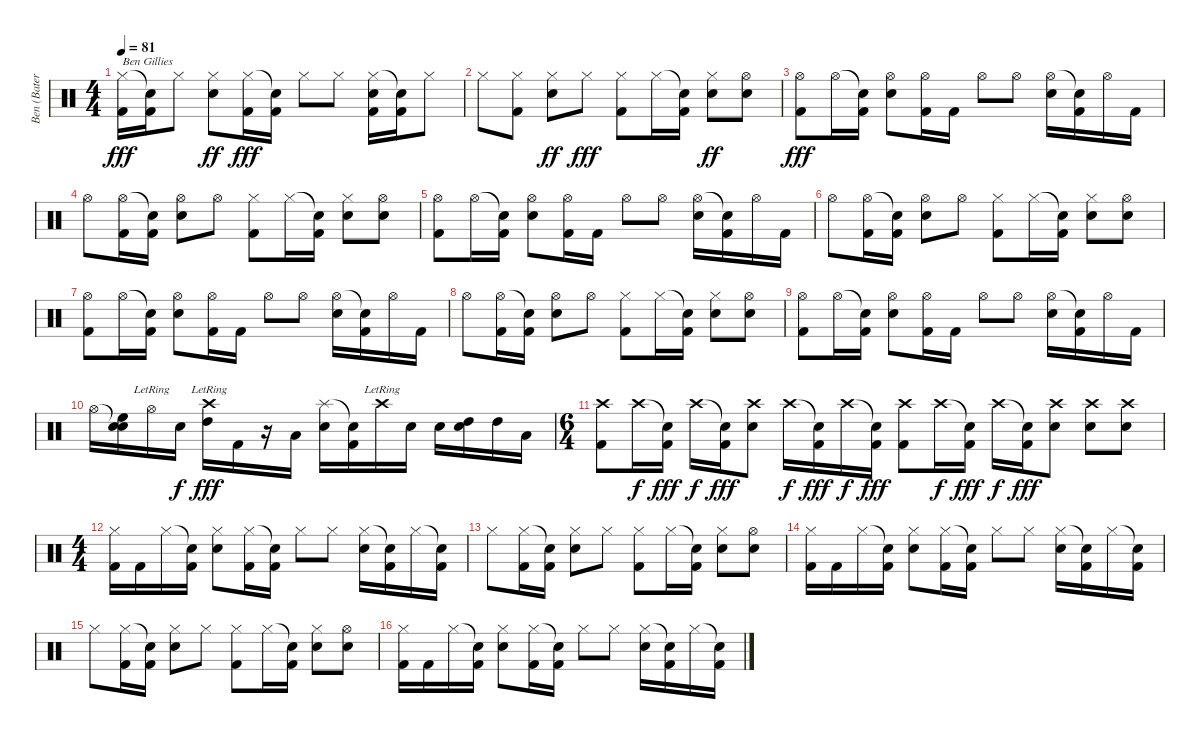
\track ("Ben (Bateria)" "Ben (Bater") {instrument percussion}
\staff {score}
\articulation defaults
\ts (4 4)
\tempo 81
\clef neutral
\ks c
("Hi-Hat (closed)" "Kick (hit) 2").16{txt "Ben Gillies" dy fff} ("Snare (hit)"{t} "Kick (hit) 2").16 "Hi-Hat (closed)".8 ("Hi-Hat (closed)" "Snare (hit) 2").8{dy ff} ("Hi-Hat (closed)" "Kick (hit) 2").16{dy fff} ("Snare (hit)"{t} "Kick (hit) 2").16 "Hi-Hat (closed)".8 "Hi-Hat (closed)".8 ("Hi-Hat (closed)" "Snare (hit) 2" "Kick (hit) 2").16 ("Snare (hit)"{t} "Kick (hit) 2").16 "Hi-Hat (closed)".8 |
"Hi-Hat (closed)".8 ("Hi-Hat (closed)" "Kick (hit) 2").8 ("Hi-Hat (closed)" "Snare (hit) 2").8{dy ff} "Hi-Hat (closed)".8{dy fff} ("Hi-Hat (closed)" "Kick (hit) 2").8 "Hi-Hat (closed)".16 ("Snare (hit)"{t} "Kick (hit) 2").16 ("Hi-Hat (closed)" "Snare (hit) 2").8{dy ff} ("Hi-Hat (open)" "Snare (hit) 2").8 |
("Hi-Hat (open)" "Kick (hit) 2").8{dy fff} "Hi-Hat (open)".16 ("Snare (hit)"{t} "Kick (hit) 2").16 ("Hi-Hat (open)" "Snare (hit) 2").8 ("Hi-Hat (open)" "Kick (hit) 2").16 "Kick (hit) 2".16 "Hi-Hat (open)".8 "Hi-Hat (open)".8 ("Hi-Hat (open)" "Snare (hit) 2").16 ("Snare (hit)"{t} "Kick (hit) 2").16 "Hi-Hat (open)".16 "Kick (hit) 2".16 |
"Hi-Hat (open)".8 ("Hi-Hat (open)" "Kick (hit) 2").16 ("Snare (hit)"{t} "Kick (hit) 2").16 ("Hi-Hat (open)" "Snare (hit) 2").8 "Hi-Hat (open)".8 ("Hi-Hat (closed)" "Kick (hit) 2").8 "Hi-Hat (closed)".16 ("Snare (hit)"{t} "Kick (hit) 2").16 ("Hi-Hat (closed)" "Snare (hit) 2").8 ("Hi-Hat (open)" "Snare (hit) 2").8 |
("Hi-Hat (open)" "Kick (hit) 2").8 "Hi-Hat (open)".16 ("Snare (hit)"{t} "Kick (hit) 2").16 ("Hi-Hat (open)" "Snare (hit) 2").8 ("Hi-Hat (open)" "Kick (hit) 2").16 "Kick (hit) 2".16 "Hi-Hat (open)".8 "Hi-Hat (open)".8 ("Hi-Hat (open)" "Snare (hit) 2").16 ("Snare (hit)"{t} "Kick (hit) 2").16 "Hi-Hat (open)".16 "Kick (hit) 2".16 |
"Hi-Hat (open)".8 ("Hi-Hat (open)" "Kick (hit) 2").16 ("Snare (hit)"{t} "Kick (hit) 2").16 ("Hi-Hat (open)" "Snare (hit) 2").8 "Hi-Hat (open)".8 ("Hi-Hat (closed)" "Kick (hit) 2").8 "Hi-Hat (closed)".16 ("Snare (hit)"{t} "Kick (hit) 2").16 ("Hi-Hat (closed)" "Snare (hit) 2").8 ("Hi-Hat (open)" "Snare (hit) 2").8 |
("Hi-Hat (open)" "Kick (hit) 2").8 "Hi-Hat (open)".16 ("Snare (hit)"{t} "Kick (hit) 2").16 ("Hi-Hat (open)" "Snare (hit) 2").8 ("Hi-Hat (open)" "Kick (hit) 2").16 "Kick (hit) 2".16 "Hi-Hat (open)".8 "Hi-Hat (open)".8 ("Hi-Hat (open)" "Snare (hit) 2").16 ("Snare (hit)"{t} "Kick (hit) 2").16 "Hi-Hat (open)".16 "Kick (hit) 2".16 |
"Hi-Hat (open)".8 ("Hi-Hat (open)" "Kick (hit) 2").16 ("Snare (hit)"{t} "Kick (hit) 2").16 ("Hi-Hat (open)" "Snare (hit) 2").8 "Hi-Hat (open)".8 ("Hi-Hat (closed)" "Kick (hit) 2").8 "Hi-Hat (closed)".16 ("Snare (hit)"{t} "Kick (hit) 2").16 ("Hi-Hat (closed)" "Snare (hit) 2").8 ("Hi-Hat (open)" "Snare (hit) 2").8 |
("Hi-Hat (open)" "Kick (hit) 2").8 "Hi-Hat (open)".16 ("Snare (hit)"{t} "Kick (hit) 2").16 ("Hi-Hat (open)" "Snare (hit) 2").8 ("Hi-Hat (open)" "Kick (hit) 2").16 "Kick (hit) 2".16 "Hi-Hat (open)".8 "Hi-Hat (open)".8 ("Hi-Hat (open)" "Snare (hit) 2").16 ("Snare (hit)"{t} "Kick (hit) 2").16 "Hi-Hat (open)".16 "Kick (hit) 2".16 |
"Hi-Hat (open)".16 ("Snare (hit)"{t} "Snare (hit) 2" "High Floor Tom (hit)").16 "Hi-Hat (open)"{lr}.16 "Snare (hit) 2".16{dy f} ("Crash high (hit)"{lr} "High Tom (hit)").16{dy fff} "Kick (hit) 2".16 r.16 "Low Tom (hit)".16 ("Splash (hit)" "Snare (hit) 2").16 ("Snare (hit)"{t} "Kick (hit) 2").16 "Crash high (hit)"{lr}.16 "Snare (hit) 2".16 "Snare (hit) 2".16 ("Snare (hit) 2" "High Tom (hit)").16 "High Tom (hit)".16 "Low Tom (hit)".16 |
\ts (6 4)
("Crash high (hit)" "Kick (hit) 2").8 "Crash high (hit)".16{dy f} ("Snare (hit)"{t} "Kick (hit) 2").16{dy fff} "Crash high (hit)".16{dy f} ("Snare (hit)"{t} "Kick (hit) 2").16{dy fff} ("Crash high (hit)" "Snare (hit) 2").8 "Crash high (hit)".16{dy f} ("Snare (hit)"{t} "Kick (hit) 2").16{dy fff} "Crash high (hit)".16{dy f} ("Snare (hit)"{t} "Kick (hit) 2").16{dy fff} ("Crash high (hit)" "Kick (hit) 2").8 "Crash high (hit)".16{dy f} ("Snare (hit)"{t} "Kick (hit) 2").16{dy fff} "Crash high (hit)".16{dy f} ("Snare (hit)"{t} "Kick (hit) 2").16{dy fff} ("Crash high (hit)" "Snare (hit) 2").8 ("Crash high (hit)" "Snare (hit) 2").8 ("Crash high (hit)" "Snare (hit) 2").8 |
\ts (4 4)
("Hi-Hat (closed)" "Kick (hit) 2").16 "Kick (hit) 2".16 "Hi-Hat (closed)".16 ("Snare (hit)"{t} "Kick (hit) 2").16 ("Hi-Hat (closed)" "Snare (hit) 2").8 ("Hi-Hat (closed)" "Kick (hit) 2").16 ("Snare (hit)"{t} "Kick (hit) 2").16 "Hi-Hat (closed)".8 "Hi-Hat (closed)".8 ("Hi-Hat (closed)" "Snare (hit) 2").16 ("Snare (hit)"{t} "Kick (hit) 2").16 "Hi-Hat (closed)".16 ("Snare (hit)"{t} "Kick (hit) 2").16 |
"Hi-Hat (closed)".8 ("Hi-Hat (closed)" "Kick (hit) 2").16 ("Snare (hit)"{t} "Kick (hit) 2").16 ("Hi-Hat (closed)" "Snare (hit) 2").8 "Hi-Hat (closed)".8 ("Hi-Hat (closed)" "Kick (hit) 2").8 "Hi-Hat (closed)".16 ("Snare (hit)"{t} "Kick (hit) 2").16 ("Hi-Hat (closed)" "Snare (hit) 2").8 ("Hi-Hat (open)" "Snare (hit) 2").8 |
("Hi-Hat (closed)" "Kick (hit) 2").16 "Kick (hit) 2".16 "Hi-Hat (closed)".16 ("Snare (hit)"{t} "Kick (hit) 2").16 ("Hi-Hat (closed)" "Snare (hit) 2").8 ("Hi-Hat (closed)" "Kick (hit) 2").16 ("Snare (hit)"{t} "Kick (hit) 2").16 "Hi-Hat (closed)".8 "Hi-Hat (closed)".8 ("Hi-Hat (closed)" "Snare (hit) 2").16 ("Snare (hit)"{t} "Kick (hit) 2").16 "Hi-Hat (closed)".16 ("Snare (hit)"{t} "Kick (hit) 2").16 |
"Hi-Hat (closed)".8 ("Hi-Hat (closed)" "Kick (hit) 2").16 ("Snare (hit)"{t} "Kick (hit) 2").16 ("Hi-Hat (closed)" "Snare (hit) 2").8 "Hi-Hat (closed)".8 ("Hi-Hat (closed)" "Kick (hit) 2").8 "Hi-Hat (closed)".16 ("Snare (hit)"{t} "Kick (hit) 2").16 ("Hi-Hat (closed)" "Snare (hit) 2").8 ("Hi-Hat (open)" "Snare (hit) 2").8 |
("Hi-Hat (closed)" "Kick (hit) 2").16 "Kick (hit) 2".16 "Hi-Hat (closed)".16 ("Snare (hit)"{t} "Kick (hit) 2").16 ("Hi-Hat (closed)" "Snare (hit) 2").8 ("Hi-Hat (closed)" "Kick (hit) 2").16 ("Snare (hit)"{t} "Kick (hit) 2").16 "Hi-Hat (closed)".8 "Hi-Hat (closed)".8 ("Hi-Hat (closed)" "Snare (hit) 2").16 ("Snare (hit)"{t} "Kick (hit) 2").16 "Hi-Hat (closed)".16 ("Snare (hit)"{t} "Kick (hit) 2").16
